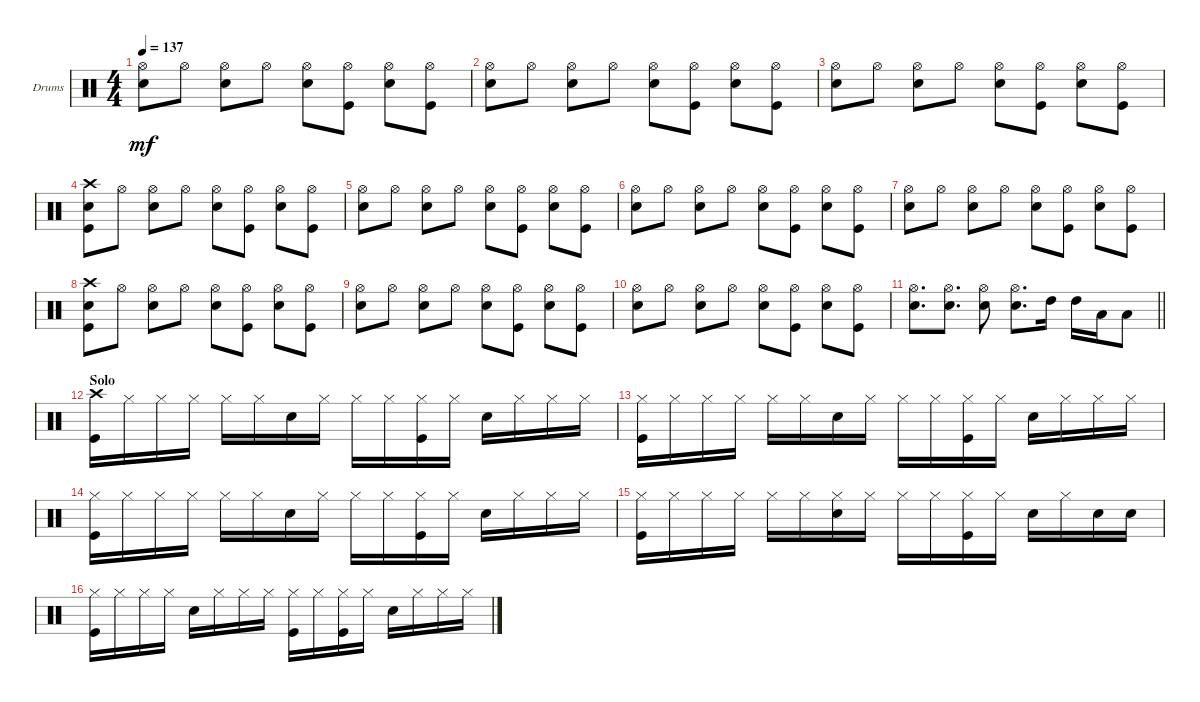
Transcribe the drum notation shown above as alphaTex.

\bracketExtendMode groupsimilarinstruments
\firstSystemTrackNameOrientation horizontal
\otherSystemsTrackNameOrientation horizontal
\track ("Drumkit" "Drums") {instrument percussion}
\staff {score}
\articulation defaults
\ts (4 4)
\tempo 137
\clef neutral
\scale
0.333333
\ks c
("Hi-Hat (open)" "Snare (hit) 2").8{dy mf} "Hi-Hat (open)".8 ("Hi-Hat (open)" "Snare (hit) 2").8 "Hi-Hat (open)".8 ("Hi-Hat (open)" "Snare (hit) 2").8 ("Hi-Hat (open)" "Kick (hit)").8 ("Hi-Hat (open)" "Snare (hit) 2").8 ("Hi-Hat (open)" "Kick (hit)").8 |
\scale
0.333333 ("Hi-Hat (open)" "Snare (hit) 2").8 "Hi-Hat (open)".8 ("Hi-Hat (open)" "Snare (hit) 2").8 "Hi-Hat (open)".8 ("Hi-Hat (open)" "Snare (hit) 2").8 ("Hi-Hat (open)" "Kick (hit)").8 ("Hi-Hat (open)" "Snare (hit) 2").8 ("Hi-Hat (open)" "Kick (hit)").8 |
\scale
0.333333 ("Hi-Hat (open)" "Snare (hit) 2").8 "Hi-Hat (open)".8 ("Hi-Hat (open)" "Snare (hit) 2").8 "Hi-Hat (open)".8 ("Hi-Hat (open)" "Snare (hit) 2").8 ("Hi-Hat (open)" "Kick (hit)").8 ("Hi-Hat (open)" "Snare (hit) 2").8 ("Hi-Hat (open)" "Kick (hit)").8 |
\scale
0.333333 ("Crash high (hit)" "Kick (hit)" "Snare (hit) 2").8 "Hi-Hat (open)".8 ("Hi-Hat (open)" "Snare (hit) 2").8 "Hi-Hat (open)".8 ("Hi-Hat (open)" "Snare (hit) 2").8 ("Hi-Hat (open)" "Kick (hit)").8 ("Hi-Hat (open)" "Snare (hit) 2").8 ("Hi-Hat (open)" "Kick (hit)").8 |
\scale
0.333333 ("Hi-Hat (open)" "Snare (hit) 2").8 "Hi-Hat (open)".8 ("Hi-Hat (open)" "Snare (hit) 2").8 "Hi-Hat (open)".8 ("Hi-Hat (open)" "Snare (hit) 2").8 ("Hi-Hat (open)" "Kick (hit)").8 ("Hi-Hat (open)" "Snare (hit) 2").8 ("Hi-Hat (open)" "Kick (hit)").8 |
\scale
0.333333 ("Hi-Hat (open)" "Snare (hit) 2").8 "Hi-Hat (open)".8 ("Hi-Hat (open)" "Snare (hit) 2").8 "Hi-Hat (open)".8 ("Hi-Hat (open)" "Snare (hit) 2").8 ("Hi-Hat (open)" "Kick (hit)").8 ("Hi-Hat (open)" "Snare (hit) 2").8 ("Hi-Hat (open)" "Kick (hit)").8 |
\scale
0.333333 ("Hi-Hat (open)" "Snare (hit) 2").8 "Hi-Hat (open)".8 ("Hi-Hat (open)" "Snare (hit) 2").8 "Hi-Hat (open)".8 ("Hi-Hat (open)" "Snare (hit) 2").8 ("Hi-Hat (open)" "Kick (hit)").8 ("Hi-Hat (open)" "Snare (hit) 2").8 ("Hi-Hat (open)" "Kick (hit)").8 |
\scale
0.333333 ("Crash high (hit)" "Kick (hit)" "Snare (hit) 2").8 "Hi-Hat (open)".8 ("Hi-Hat (open)" "Snare (hit) 2").8 "Hi-Hat (open)".8 ("Hi-Hat (open)" "Snare (hit) 2").8 ("Hi-Hat (open)" "Kick (hit)").8 ("Hi-Hat (open)" "Snare (hit) 2").8 ("Hi-Hat (open)" "Kick (hit)").8 |
\scale
0.333333 ("Hi-Hat (open)" "Snare (hit) 2").8 "Hi-Hat (open)".8 ("Hi-Hat (open)" "Snare (hit) 2").8 "Hi-Hat (open)".8 ("Hi-Hat (open)" "Snare (hit) 2").8 ("Hi-Hat (open)" "Kick (hit)").8 ("Hi-Hat (open)" "Snare (hit) 2").8 ("Hi-Hat (open)" "Kick (hit)").8 |
\scale
0.333333 ("Hi-Hat (open)" "Snare (hit) 2").8 "Hi-Hat (open)".8 ("Hi-Hat (open)" "Snare (hit) 2").8 "Hi-Hat (open)".8 ("Hi-Hat (open)" "Snare (hit) 2").8 ("Hi-Hat (open)" "Kick (hit)").8 ("Hi-Hat (open)" "Snare (hit) 2").8 ("Hi-Hat (open)" "Kick (hit)").8 |
\scale
0.333333
\barLineRight lightlight
("Hi-Hat (open)" "Snare (hit) 2").8{d} ("Hi-Hat (open)" "Snare (hit) 2").8{d} ("Hi-Hat (open)" "Snare (hit) 2").8 ("Hi-Hat (open)" "Snare (hit) 2").8{d} "High Tom (hit)".16 "High Tom (hit)".16 "Low Tom (hit)".16 "Low Tom (hit)".8 |
\section ("" "Solo")
\scale
0.333333 ("Kick (hit)" "Crash high (hit)").16 "Hi-Hat (closed)".16 "Hi-Hat (closed)".16 "Hi-Hat (closed)".16 "Hi-Hat (closed)".16 "Hi-Hat (closed)".16 "Snare (hit) 2".16 "Hi-Hat (closed)".16 "Hi-Hat (closed)".16 "Hi-Hat (closed)".16 ("Hi-Hat (closed)" "Kick (hit)").16 "Hi-Hat (closed)".16 "Snare (hit) 2".16 "Hi-Hat (closed)".16 "Hi-Hat (closed)".16 "Hi-Hat (closed)".16 |
\scale
0.333333 ("Hi-Hat (closed)" "Kick (hit)").16 "Hi-Hat (closed)".16 "Hi-Hat (closed)".16 "Hi-Hat (closed)".16 "Hi-Hat (closed)".16 "Hi-Hat (closed)".16 "Snare (hit) 2".16 "Hi-Hat (closed)".16 "Hi-Hat (closed)".16 "Hi-Hat (closed)".16 ("Hi-Hat (closed)" "Kick (hit)").16 "Hi-Hat (closed)".16 "Snare (hit) 2".16 "Hi-Hat (closed)".16 "Hi-Hat (closed)".16 "Hi-Hat (closed)".16 |
\scale
0.333333 ("Hi-Hat (closed)" "Kick (hit)").16 "Hi-Hat (closed)".16 "Hi-Hat (closed)".16 "Hi-Hat (closed)".16 "Hi-Hat (closed)".16 "Hi-Hat (closed)".16 "Snare (hit) 2".16 "Hi-Hat (closed)".16 "Hi-Hat (closed)".16 "Hi-Hat (closed)".16 ("Hi-Hat (closed)" "Kick (hit)").16 "Hi-Hat (closed)".16 "Snare (hit) 2".16 "Hi-Hat (closed)".16 "Hi-Hat (closed)".16 "Hi-Hat (closed)".16 |
\scale
0.333333 ("Hi-Hat (closed)" "Kick (hit)").16 "Hi-Hat (closed)".16 "Hi-Hat (closed)".16 "Hi-Hat (closed)".16 "Hi-Hat (closed)".16 "Hi-Hat (closed)".16 ("Hi-Hat (closed)" "Snare (hit) 2").16 "Hi-Hat (closed)".16 "Hi-Hat (closed)".16 "Hi-Hat (closed)".16 ("Hi-Hat (closed)" "Kick (hit)").16 "Hi-Hat (closed)".16 "Snare (hit) 2".16 "Hi-Hat (closed)".16 "Snare (hit) 2".16 "Snare (hit) 2".16 |
\scale
0.333333 ("Hi-Hat (closed)" "Kick (hit)").16 "Hi-Hat (closed)".16 "Hi-Hat (closed)".16 "Hi-Hat (closed)".16 "Snare (hit) 2".16 "Hi-Hat (closed)".16 "Hi-Hat (closed)".16 "Hi-Hat (closed)".16 ("Hi-Hat (closed)" "Kick (hit)").16 "Hi-Hat (closed)".16 ("Hi-Hat (closed)" "Kick (hit)").16 "Hi-Hat (closed)".16 "Snare (hit) 2".16 "Hi-Hat (closed)".16 "Hi-Hat (closed)".16 "Hi-Hat (closed)".16
